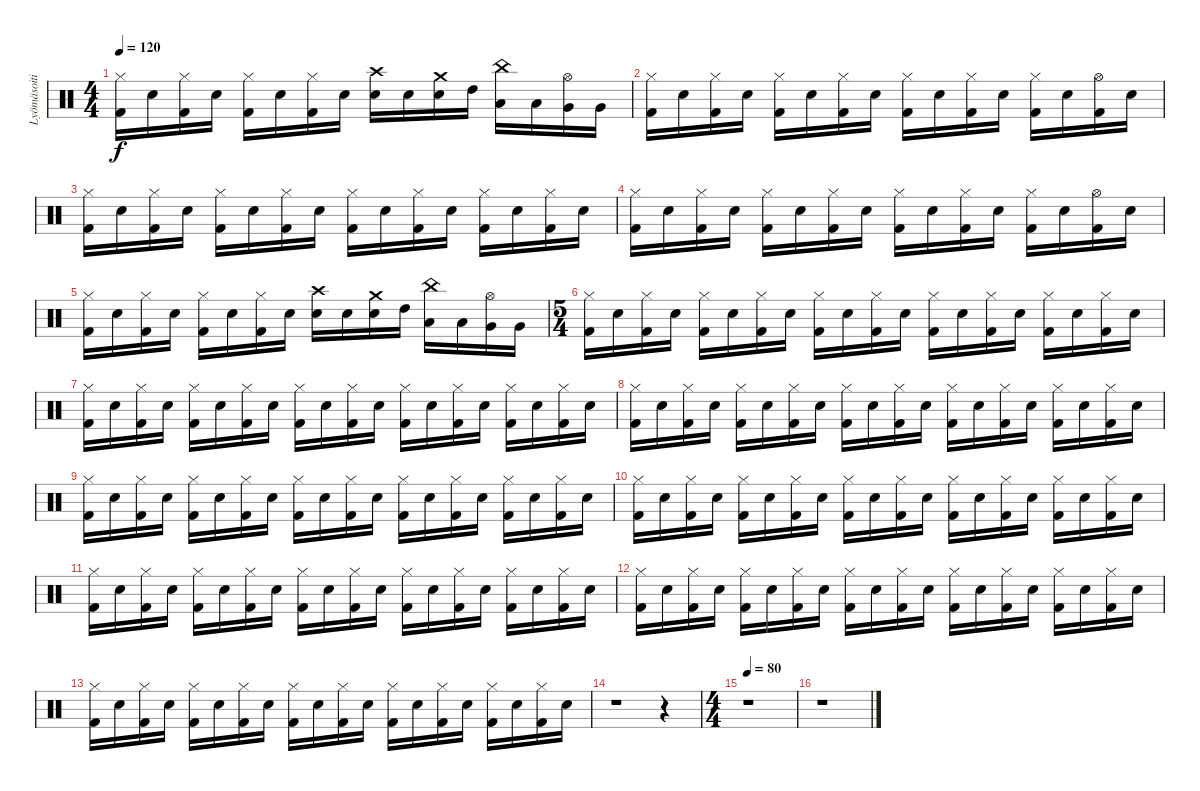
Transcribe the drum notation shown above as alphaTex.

\track ("Lyömäsoitin" "Lyömäsoiti") {instrument percussion}
\staff {score}
\articulation defaults
\ts (4 4)
\tempo 120
\clef neutral
\ks c
("Hi-Hat (closed)" "Kick (hit) 2").16{dy f} "Snare (hit) 2".16 ("Hi-Hat (closed)" "Kick (hit) 2").16 "Snare (hit) 2".16 ("Hi-Hat (closed)" "Kick (hit) 2").16 "Snare (hit) 2".16 ("Hi-Hat (closed)" "Kick (hit) 2").16 "Snare (hit) 2".16 ("Crash high (hit)" "Snare (hit) 2").16 "Snare (hit) 2".16 ("Crash medium (hit)" "Snare (hit) 2").16 "High Tom (hit)".16 ("China (hit)" "Low Tom (hit)").16 "Low Tom (hit)".16 ("Hi-Hat (open)" "Very Low Tom (hit)").16 "Very Low Tom (hit)".16 |
("Hi-Hat (closed)" "Kick (hit) 2").16 "Snare (hit) 2".16 ("Hi-Hat (closed)" "Kick (hit) 2").16 "Snare (hit) 2".16 ("Hi-Hat (closed)" "Kick (hit) 2").16 "Snare (hit) 2".16 ("Hi-Hat (closed)" "Kick (hit) 2").16 "Snare (hit) 2".16 ("Hi-Hat (closed)" "Kick (hit) 2").16 "Snare (hit) 2".16 ("Hi-Hat (closed)" "Kick (hit) 2").16 "Snare (hit) 2".16 ("Hi-Hat (closed)" "Kick (hit) 2").16 "Snare (hit) 2".16 ("Hi-Hat (open)" "Kick (hit) 2").16 "Snare (hit) 2".16 |
("Hi-Hat (closed)" "Kick (hit) 2").16 "Snare (hit) 2".16 ("Hi-Hat (closed)" "Kick (hit) 2").16 "Snare (hit) 2".16 ("Hi-Hat (closed)" "Kick (hit) 2").16 "Snare (hit) 2".16 ("Hi-Hat (closed)" "Kick (hit) 2").16 "Snare (hit) 2".16 ("Hi-Hat (closed)" "Kick (hit) 2").16 "Snare (hit) 2".16 ("Hi-Hat (closed)" "Kick (hit) 2").16 "Snare (hit) 2".16 ("Hi-Hat (closed)" "Kick (hit) 2").16 "Snare (hit) 2".16 ("Hi-Hat (closed)" "Kick (hit) 2").16 "Snare (hit) 2".16 |
("Hi-Hat (closed)" "Kick (hit) 2").16 "Snare (hit) 2".16 ("Hi-Hat (closed)" "Kick (hit) 2").16 "Snare (hit) 2".16 ("Hi-Hat (closed)" "Kick (hit) 2").16 "Snare (hit) 2".16 ("Hi-Hat (closed)" "Kick (hit) 2").16 "Snare (hit) 2".16 ("Hi-Hat (closed)" "Kick (hit) 2").16 "Snare (hit) 2".16 ("Hi-Hat (closed)" "Kick (hit) 2").16 "Snare (hit) 2".16 ("Hi-Hat (closed)" "Kick (hit) 2").16 "Snare (hit) 2".16 ("Hi-Hat (open)" "Kick (hit) 2").16 "Snare (hit) 2".16 |
("Hi-Hat (closed)" "Kick (hit) 2").16 "Snare (hit) 2".16 ("Hi-Hat (closed)" "Kick (hit) 2").16 "Snare (hit) 2".16 ("Hi-Hat (closed)" "Kick (hit) 2").16 "Snare (hit) 2".16 ("Hi-Hat (closed)" "Kick (hit) 2").16 "Snare (hit) 2".16 ("Crash high (hit)" "Snare (hit) 2").16 "Snare (hit) 2".16 ("Crash medium (hit)" "Snare (hit) 2").16 "High Tom (hit)".16 ("China (hit)" "Low Tom (hit)").16 "Low Tom (hit)".16 ("Hi-Hat (open)" "Very Low Tom (hit)").16 "Very Low Tom (hit)".16 |
\ts (5 4)
("Hi-Hat (closed)" "Kick (hit) 2").16 "Snare (hit) 2".16 ("Hi-Hat (closed)" "Kick (hit) 2").16 "Snare (hit) 2".16 ("Hi-Hat (closed)" "Kick (hit) 2").16 "Snare (hit) 2".16 ("Hi-Hat (closed)" "Kick (hit) 2").16 "Snare (hit) 2".16 ("Hi-Hat (closed)" "Kick (hit) 2").16 "Snare (hit) 2".16 ("Hi-Hat (closed)" "Kick (hit) 2").16 "Snare (hit) 2".16 ("Hi-Hat (closed)" "Kick (hit) 2").16 "Snare (hit) 2".16 ("Hi-Hat (closed)" "Kick (hit) 2").16 "Snare (hit) 2".16 ("Hi-Hat (closed)" "Kick (hit) 2").16 "Snare (hit) 2".16 ("Hi-Hat (closed)" "Kick (hit) 2").16 "Snare (hit) 2".16 |
("Hi-Hat (closed)" "Kick (hit) 2").16 "Snare (hit) 2".16 ("Hi-Hat (closed)" "Kick (hit) 2").16 "Snare (hit) 2".16 ("Hi-Hat (closed)" "Kick (hit) 2").16 "Snare (hit) 2".16 ("Hi-Hat (closed)" "Kick (hit) 2").16 "Snare (hit) 2".16 ("Hi-Hat (closed)" "Kick (hit) 2").16 "Snare (hit) 2".16 ("Hi-Hat (closed)" "Kick (hit) 2").16 "Snare (hit) 2".16 ("Hi-Hat (closed)" "Kick (hit) 2").16 "Snare (hit) 2".16 ("Hi-Hat (closed)" "Kick (hit) 2").16 "Snare (hit) 2".16 ("Hi-Hat (closed)" "Kick (hit) 2").16 "Snare (hit) 2".16 ("Hi-Hat (closed)" "Kick (hit) 2").16 "Snare (hit) 2".16 |
("Hi-Hat (closed)" "Kick (hit) 2").16 "Snare (hit) 2".16 ("Hi-Hat (closed)" "Kick (hit) 2").16 "Snare (hit) 2".16 ("Hi-Hat (closed)" "Kick (hit) 2").16 "Snare (hit) 2".16 ("Hi-Hat (closed)" "Kick (hit) 2").16 "Snare (hit) 2".16 ("Hi-Hat (closed)" "Kick (hit) 2").16 "Snare (hit) 2".16 ("Hi-Hat (closed)" "Kick (hit) 2").16 "Snare (hit) 2".16 ("Hi-Hat (closed)" "Kick (hit) 2").16 "Snare (hit) 2".16 ("Hi-Hat (closed)" "Kick (hit) 2").16 "Snare (hit) 2".16 ("Hi-Hat (closed)" "Kick (hit) 2").16 "Snare (hit) 2".16 ("Hi-Hat (closed)" "Kick (hit) 2").16 "Snare (hit) 2".16 |
("Hi-Hat (closed)" "Kick (hit) 2").16 "Snare (hit) 2".16 ("Hi-Hat (closed)" "Kick (hit) 2").16 "Snare (hit) 2".16 ("Hi-Hat (closed)" "Kick (hit) 2").16 "Snare (hit) 2".16 ("Hi-Hat (closed)" "Kick (hit) 2").16 "Snare (hit) 2".16 ("Hi-Hat (closed)" "Kick (hit) 2").16 "Snare (hit) 2".16 ("Hi-Hat (closed)" "Kick (hit) 2").16 "Snare (hit) 2".16 ("Hi-Hat (closed)" "Kick (hit) 2").16 "Snare (hit) 2".16 ("Hi-Hat (closed)" "Kick (hit) 2").16 "Snare (hit) 2".16 ("Hi-Hat (closed)" "Kick (hit) 2").16 "Snare (hit) 2".16 ("Hi-Hat (closed)" "Kick (hit) 2").16 "Snare (hit) 2".16 |
("Hi-Hat (closed)" "Kick (hit) 2").16 "Snare (hit) 2".16 ("Hi-Hat (closed)" "Kick (hit) 2").16 "Snare (hit) 2".16 ("Hi-Hat (closed)" "Kick (hit) 2").16 "Snare (hit) 2".16 ("Hi-Hat (closed)" "Kick (hit) 2").16 "Snare (hit) 2".16 ("Hi-Hat (closed)" "Kick (hit) 2").16 "Snare (hit) 2".16 ("Hi-Hat (closed)" "Kick (hit) 2").16 "Snare (hit) 2".16 ("Hi-Hat (closed)" "Kick (hit) 2").16 "Snare (hit) 2".16 ("Hi-Hat (closed)" "Kick (hit) 2").16 "Snare (hit) 2".16 ("Hi-Hat (closed)" "Kick (hit) 2").16 "Snare (hit) 2".16 ("Hi-Hat (closed)" "Kick (hit) 2").16 "Snare (hit) 2".16 |
("Hi-Hat (closed)" "Kick (hit) 2").16 "Snare (hit) 2".16 ("Hi-Hat (closed)" "Kick (hit) 2").16 "Snare (hit) 2".16 ("Hi-Hat (closed)" "Kick (hit) 2").16 "Snare (hit) 2".16 ("Hi-Hat (closed)" "Kick (hit) 2").16 "Snare (hit) 2".16 ("Hi-Hat (closed)" "Kick (hit) 2").16 "Snare (hit) 2".16 ("Hi-Hat (closed)" "Kick (hit) 2").16 "Snare (hit) 2".16 ("Hi-Hat (closed)" "Kick (hit) 2").16 "Snare (hit) 2".16 ("Hi-Hat (closed)" "Kick (hit) 2").16 "Snare (hit) 2".16 ("Hi-Hat (closed)" "Kick (hit) 2").16 "Snare (hit) 2".16 ("Hi-Hat (closed)" "Kick (hit) 2").16 "Snare (hit) 2".16 |
("Hi-Hat (closed)" "Kick (hit) 2").16 "Snare (hit) 2".16 ("Hi-Hat (closed)" "Kick (hit) 2").16 "Snare (hit) 2".16 ("Hi-Hat (closed)" "Kick (hit) 2").16 "Snare (hit) 2".16 ("Hi-Hat (closed)" "Kick (hit) 2").16 "Snare (hit) 2".16 ("Hi-Hat (closed)" "Kick (hit) 2").16 "Snare (hit) 2".16 ("Hi-Hat (closed)" "Kick (hit) 2").16 "Snare (hit) 2".16 ("Hi-Hat (closed)" "Kick (hit) 2").16 "Snare (hit) 2".16 ("Hi-Hat (closed)" "Kick (hit) 2").16 "Snare (hit) 2".16 ("Hi-Hat (closed)" "Kick (hit) 2").16 "Snare (hit) 2".16 ("Hi-Hat (closed)" "Kick (hit) 2").16 "Snare (hit) 2".16 |
("Hi-Hat (closed)" "Kick (hit) 2").16 "Snare (hit) 2".16 ("Hi-Hat (closed)" "Kick (hit) 2").16 "Snare (hit) 2".16 ("Hi-Hat (closed)" "Kick (hit) 2").16 "Snare (hit) 2".16 ("Hi-Hat (closed)" "Kick (hit) 2").16 "Snare (hit) 2".16 ("Hi-Hat (closed)" "Kick (hit) 2").16 "Snare (hit) 2".16 ("Hi-Hat (closed)" "Kick (hit) 2").16 "Snare (hit) 2".16 ("Hi-Hat (closed)" "Kick (hit) 2").16 "Snare (hit) 2".16 ("Hi-Hat (closed)" "Kick (hit) 2").16 "Snare (hit) 2".16 ("Hi-Hat (closed)" "Kick (hit) 2").16 "Snare (hit) 2".16 ("Hi-Hat (closed)" "Kick (hit) 2").16 "Snare (hit) 2".16 |
r.1 r.4 |
\ts (4 4)
\tempo 80
r.1 |
r.1
